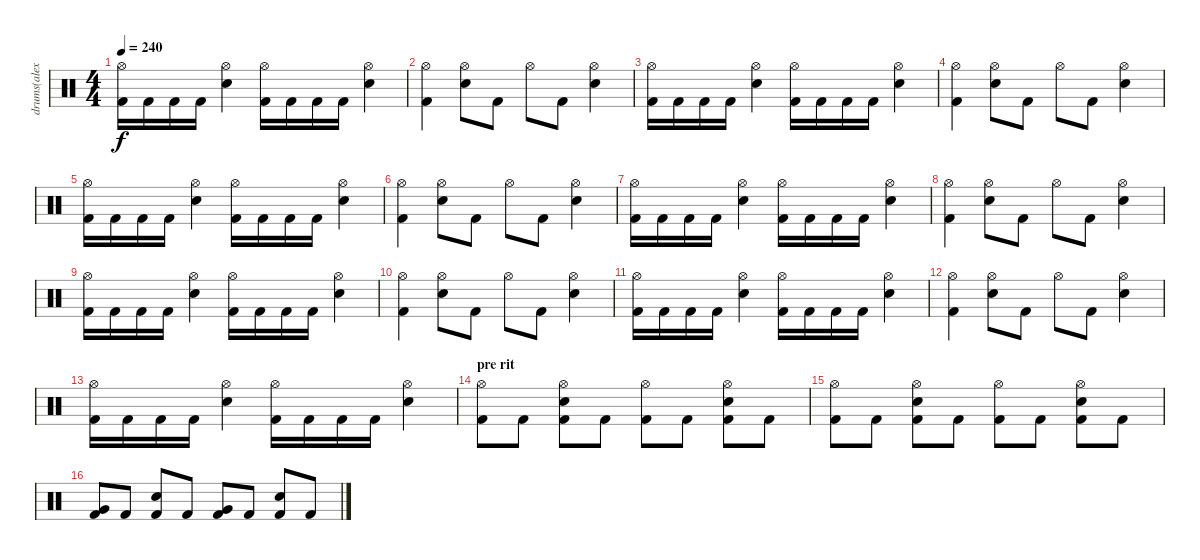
\track ("drums(alex holzshwart)" "drums(alex") {instrument percussion}
\staff {score}
\articulation defaults
\ts (4 4)
\tempo 240
\clef neutral
\ks c
("Hi-Hat (open)" "Kick (hit) 2").16{dy f} "Kick (hit) 2".16 "Kick (hit) 2".16 "Kick (hit) 2".16 ("Hi-Hat (open)" "Electric Snare (hit)").4 ("Hi-Hat (open)" "Kick (hit) 2").16 "Kick (hit) 2".16 "Kick (hit) 2".16 "Kick (hit) 2".16 ("Hi-Hat (open)" "Electric Snare (hit)").4 |
("Hi-Hat (open)" "Kick (hit) 2").4 ("Hi-Hat (open)" "Electric Snare (hit)").8 "Kick (hit) 2".8 "Hi-Hat (open)".8 "Kick (hit) 2".8 ("Hi-Hat (open)" "Electric Snare (hit)").4 |
("Hi-Hat (open)" "Kick (hit) 2").16 "Kick (hit) 2".16 "Kick (hit) 2".16 "Kick (hit) 2".16 ("Hi-Hat (open)" "Electric Snare (hit)").4 ("Hi-Hat (open)" "Kick (hit) 2").16 "Kick (hit) 2".16 "Kick (hit) 2".16 "Kick (hit) 2".16 ("Hi-Hat (open)" "Electric Snare (hit)").4 |
("Hi-Hat (open)" "Kick (hit) 2").4 ("Hi-Hat (open)" "Electric Snare (hit)").8 "Kick (hit) 2".8 "Hi-Hat (open)".8 "Kick (hit) 2".8 ("Hi-Hat (open)" "Electric Snare (hit)").4 |
("Hi-Hat (open)" "Kick (hit) 2").16 "Kick (hit) 2".16 "Kick (hit) 2".16 "Kick (hit) 2".16 ("Hi-Hat (open)" "Electric Snare (hit)").4 ("Hi-Hat (open)" "Kick (hit) 2").16 "Kick (hit) 2".16 "Kick (hit) 2".16 "Kick (hit) 2".16 ("Hi-Hat (open)" "Electric Snare (hit)").4 |
("Hi-Hat (open)" "Kick (hit) 2").4 ("Hi-Hat (open)" "Electric Snare (hit)").8 "Kick (hit) 2".8 "Hi-Hat (open)".8 "Kick (hit) 2".8 ("Hi-Hat (open)" "Electric Snare (hit)").4 |
("Hi-Hat (open)" "Kick (hit) 2").16 "Kick (hit) 2".16 "Kick (hit) 2".16 "Kick (hit) 2".16 ("Hi-Hat (open)" "Electric Snare (hit)").4 ("Hi-Hat (open)" "Kick (hit) 2").16 "Kick (hit) 2".16 "Kick (hit) 2".16 "Kick (hit) 2".16 ("Hi-Hat (open)" "Electric Snare (hit)").4 |
("Hi-Hat (open)" "Kick (hit) 2").4 ("Hi-Hat (open)" "Electric Snare (hit)").8 "Kick (hit) 2".8 "Hi-Hat (open)".8 "Kick (hit) 2".8 ("Hi-Hat (open)" "Electric Snare (hit)").4 |
("Hi-Hat (open)" "Kick (hit) 2").16 "Kick (hit) 2".16 "Kick (hit) 2".16 "Kick (hit) 2".16 ("Hi-Hat (open)" "Electric Snare (hit)").4 ("Hi-Hat (open)" "Kick (hit) 2").16 "Kick (hit) 2".16 "Kick (hit) 2".16 "Kick (hit) 2".16 ("Hi-Hat (open)" "Electric Snare (hit)").4 |
("Hi-Hat (open)" "Kick (hit) 2").4 ("Hi-Hat (open)" "Electric Snare (hit)").8 "Kick (hit) 2".8 "Hi-Hat (open)".8 "Kick (hit) 2".8 ("Hi-Hat (open)" "Electric Snare (hit)").4 |
("Hi-Hat (open)" "Kick (hit) 2").16 "Kick (hit) 2".16 "Kick (hit) 2".16 "Kick (hit) 2".16 ("Hi-Hat (open)" "Electric Snare (hit)").4 ("Hi-Hat (open)" "Kick (hit) 2").16 "Kick (hit) 2".16 "Kick (hit) 2".16 "Kick (hit) 2".16 ("Hi-Hat (open)" "Electric Snare (hit)").4 |
("Hi-Hat (open)" "Kick (hit) 2").4 ("Hi-Hat (open)" "Electric Snare (hit)").8 "Kick (hit) 2".8 "Hi-Hat (open)".8 "Kick (hit) 2".8 ("Hi-Hat (open)" "Electric Snare (hit)").4 |
("Hi-Hat (open)" "Kick (hit) 2").16 "Kick (hit) 2".16 "Kick (hit) 2".16 "Kick (hit) 2".16 ("Hi-Hat (open)" "Electric Snare (hit)").4 ("Hi-Hat (open)" "Kick (hit) 2").16 "Kick (hit) 2".16 "Kick (hit) 2".16 "Kick (hit) 2".16 ("Hi-Hat (open)" "Electric Snare (hit)").4 |
\section ("" "pre rit")
("Hi-Hat (open)" "Kick (hit) 2").8 "Kick (hit) 2".8 ("Hi-Hat (open)" "Electric Snare (hit)" "Kick (hit) 2").8 "Kick (hit) 2".8 ("Hi-Hat (open)" "Kick (hit) 2").8 "Kick (hit) 2".8 ("Hi-Hat (open)" "Electric Snare (hit)" "Kick (hit) 2").8 "Kick (hit) 2".8 |
("Hi-Hat (open)" "Kick (hit) 2").8 "Kick (hit) 2".8 ("Hi-Hat (open)" "Electric Snare (hit)" "Kick (hit) 2").8 "Kick (hit) 2".8 ("Hi-Hat (open)" "Kick (hit) 2").8 "Kick (hit) 2".8 ("Hi-Hat (open)" "Electric Snare (hit)" "Kick (hit) 2").8 "Kick (hit) 2".8 |
("Very Low Tom (hit)" "Kick (hit) 2").8 "Kick (hit) 2".8 ("Electric Snare (hit)" "Kick (hit) 2").8 "Kick (hit) 2".8 ("Very Low Tom (hit)" "Kick (hit) 2").8 "Kick (hit) 2".8 ("Electric Snare (hit)" "Kick (hit) 2").8 "Kick (hit) 2".8
